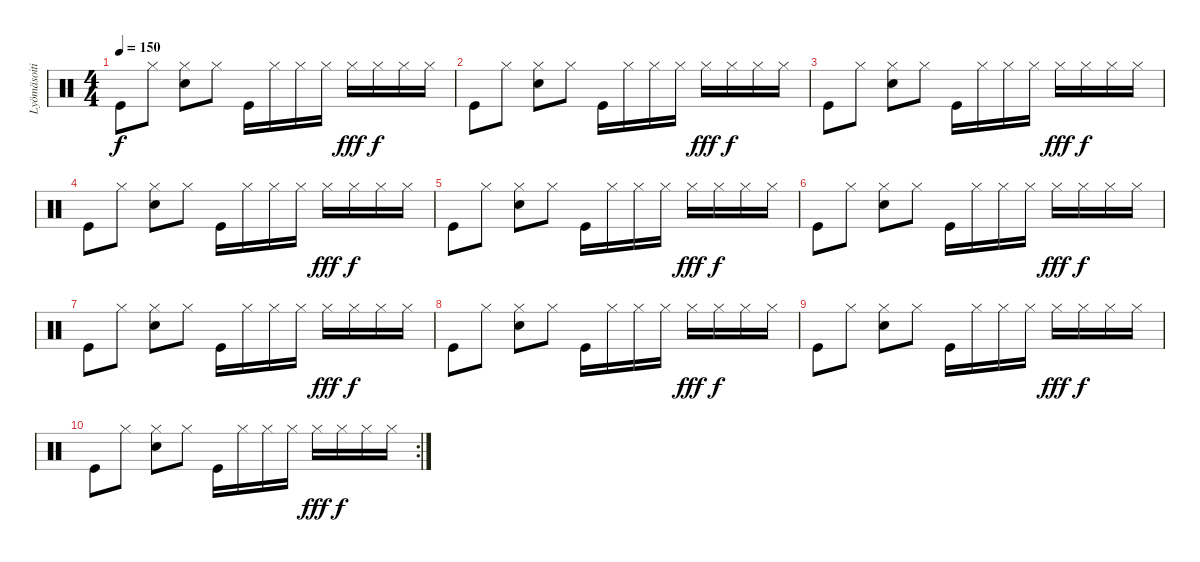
\track ("Lyömäsoitin" "Lyömäsoiti") {instrument percussion}
\staff {score}
\articulation defaults
\ts (4 4)
\tempo 150
\clef neutral
\ks c "Kick (hit)".8{dy f} "Hi-Hat (closed)".8
("Hi-Hat (closed)" "Snare (hit) 2").8 "Hi-Hat (closed)".8 "Kick (hit)".16 "Hi-Hat (closed)".16 "Hi-Hat (closed)".16 "Hi-Hat (closed)".16 "Hi-Hat (closed)".16{dy fff} "Hi-Hat (closed)".16{dy f} "Hi-Hat (closed)".16 "Hi-Hat (closed)".16 |
"Kick (hit)".8 "Hi-Hat (closed)".8 ("Hi-Hat (closed)" "Snare (hit) 2").8 "Hi-Hat (closed)".8 "Kick (hit)".16 "Hi-Hat (closed)".16 "Hi-Hat (closed)".16 "Hi-Hat (closed)".16 "Hi-Hat (closed)".16{dy fff} "Hi-Hat (closed)".16{dy f} "Hi-Hat (closed)".16 "Hi-Hat (closed)".16 |
"Kick (hit)".8 "Hi-Hat (closed)".8 ("Hi-Hat (closed)" "Snare (hit) 2").8 "Hi-Hat (closed)".8 "Kick (hit)".16 "Hi-Hat (closed)".16 "Hi-Hat (closed)".16 "Hi-Hat (closed)".16 "Hi-Hat (closed)".16{dy fff} "Hi-Hat (closed)".16{dy f} "Hi-Hat (closed)".16 "Hi-Hat (closed)".16 |
"Kick (hit)".8 "Hi-Hat (closed)".8 ("Hi-Hat (closed)" "Snare (hit) 2").8 "Hi-Hat (closed)".8 "Kick (hit)".16 "Hi-Hat (closed)".16 "Hi-Hat (closed)".16 "Hi-Hat (closed)".16 "Hi-Hat (closed)".16{dy fff} "Hi-Hat (closed)".16{dy f} "Hi-Hat (closed)".16 "Hi-Hat (closed)".16 |
"Kick (hit)".8 "Hi-Hat (closed)".8 ("Hi-Hat (closed)" "Snare (hit) 2").8 "Hi-Hat (closed)".8 "Kick (hit)".16 "Hi-Hat (closed)".16 "Hi-Hat (closed)".16 "Hi-Hat (closed)".16 "Hi-Hat (closed)".16{dy fff} "Hi-Hat (closed)".16{dy f} "Hi-Hat (closed)".16 "Hi-Hat (closed)".16 |
"Kick (hit)".8 "Hi-Hat (closed)".8 ("Hi-Hat (closed)" "Snare (hit) 2").8 "Hi-Hat (closed)".8 "Kick (hit)".16 "Hi-Hat (closed)".16 "Hi-Hat (closed)".16 "Hi-Hat (closed)".16 "Hi-Hat (closed)".16{dy fff} "Hi-Hat (closed)".16{dy f} "Hi-Hat (closed)".16 "Hi-Hat (closed)".16 |
"Kick (hit)".8 "Hi-Hat (closed)".8 ("Hi-Hat (closed)" "Snare (hit) 2").8 "Hi-Hat (closed)".8 "Kick (hit)".16 "Hi-Hat (closed)".16 "Hi-Hat (closed)".16 "Hi-Hat (closed)".16 "Hi-Hat (closed)".16{dy fff} "Hi-Hat (closed)".16{dy f} "Hi-Hat (closed)".16 "Hi-Hat (closed)".16 |
"Kick (hit)".8 "Hi-Hat (closed)".8 ("Hi-Hat (closed)" "Snare (hit) 2").8 "Hi-Hat (closed)".8 "Kick (hit)".16 "Hi-Hat (closed)".16 "Hi-Hat (closed)".16 "Hi-Hat (closed)".16 "Hi-Hat (closed)".16{dy fff} "Hi-Hat (closed)".16{dy f} "Hi-Hat (closed)".16 "Hi-Hat (closed)".16 |
"Kick (hit)".8 "Hi-Hat (closed)".8 ("Hi-Hat (closed)" "Snare (hit) 2").8 "Hi-Hat (closed)".8 "Kick (hit)".16 "Hi-Hat (closed)".16 "Hi-Hat (closed)".16 "Hi-Hat (closed)".16 "Hi-Hat (closed)".16{dy fff} "Hi-Hat (closed)".16{dy f} "Hi-Hat (closed)".16 "Hi-Hat (closed)".16 |
\rc 2 "Kick (hit)".8 "Hi-Hat (closed)".8
("Hi-Hat (closed)" "Snare (hit) 2").8 "Hi-Hat (closed)".8 "Kick (hit)".16 "Hi-Hat (closed)".16 "Hi-Hat (closed)".16 "Hi-Hat (closed)".16 "Hi-Hat (closed)".16{dy fff} "Hi-Hat (closed)".16{dy f} "Hi-Hat (closed)".16 "Hi-Hat (closed)".16
